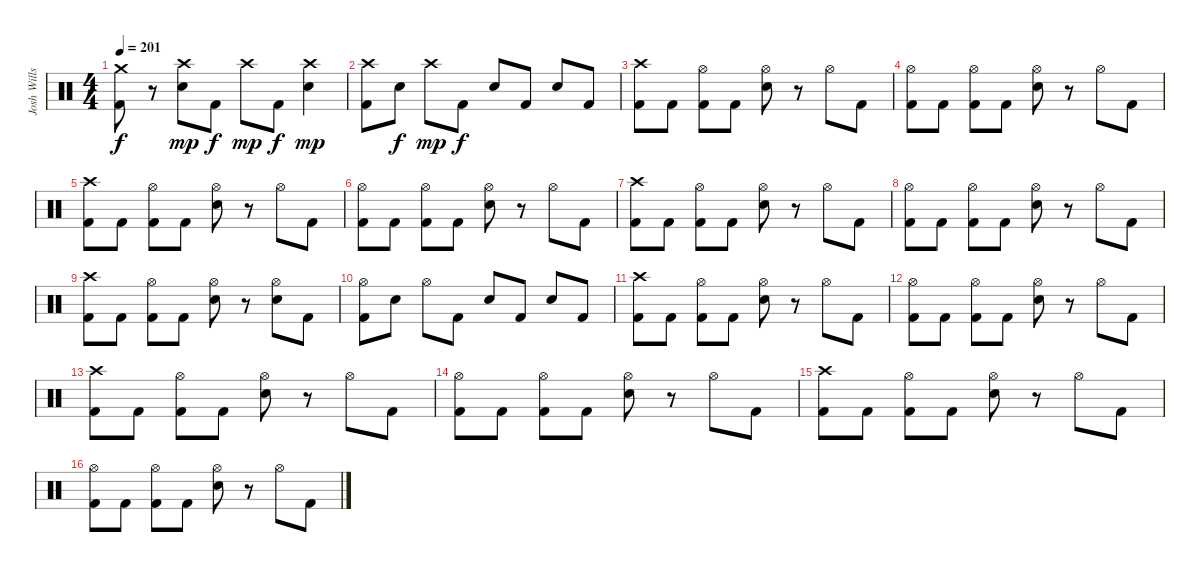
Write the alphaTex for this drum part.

\track ("Josh Wills" "Josh Wills") {instrument percussion}
\staff {score}
\articulation defaults
\ts (4 4)
\tempo 201
\clef neutral
\ks c
("Crash medium (hit)" "Kick (hit) 2").8{dy f} r.8 ("Crash high (hit)" "Snare (hit) 2").8{dy mp} "Kick (hit) 2".8{dy f} "Crash high (hit)".8{dy mp} "Kick (hit) 2".8{dy f} ("Crash high (hit)" "Snare (hit) 2").4{dy mp} |
("Crash high (hit)" "Kick (hit) 2").8 "Snare (hit) 2".8{dy f} "Crash high (hit)".8{dy mp} "Kick (hit) 2".8{dy f} "Snare (hit) 2".8 "Kick (hit) 2".8 "Snare (hit) 2".8 "Kick (hit) 2".8 |
("Crash high (hit)" "Kick (hit) 2").8 "Kick (hit) 2".8 ("Hi-Hat (open)" "Kick (hit) 2").8 "Kick (hit) 2".8 ("Hi-Hat (open)" "Snare (hit) 2").8 r.8 "Hi-Hat (open)".8 "Kick (hit) 2".8 |
("Hi-Hat (open)" "Kick (hit) 2").8 "Kick (hit) 2".8 ("Hi-Hat (open)" "Kick (hit) 2").8 "Kick (hit) 2".8 ("Hi-Hat (open)" "Snare (hit) 2").8 r.8 "Hi-Hat (open)".8 "Kick (hit) 2".8 |
("Crash high (hit)" "Kick (hit) 2").8 "Kick (hit) 2".8 ("Hi-Hat (open)" "Kick (hit) 2").8 "Kick (hit) 2".8 ("Hi-Hat (open)" "Snare (hit) 2").8 r.8 "Hi-Hat (open)".8 "Kick (hit) 2".8 |
("Hi-Hat (open)" "Kick (hit) 2").8 "Kick (hit) 2".8 ("Hi-Hat (open)" "Kick (hit) 2").8 "Kick (hit) 2".8 ("Hi-Hat (open)" "Snare (hit) 2").8 r.8 "Hi-Hat (open)".8 "Kick (hit) 2".8 |
("Crash high (hit)" "Kick (hit) 2").8 "Kick (hit) 2".8 ("Hi-Hat (open)" "Kick (hit) 2").8 "Kick (hit) 2".8 ("Hi-Hat (open)" "Snare (hit) 2").8 r.8 "Hi-Hat (open)".8 "Kick (hit) 2".8 |
("Hi-Hat (open)" "Kick (hit) 2").8 "Kick (hit) 2".8 ("Hi-Hat (open)" "Kick (hit) 2").8 "Kick (hit) 2".8 ("Hi-Hat (open)" "Snare (hit) 2").8 r.8 "Hi-Hat (open)".8 "Kick (hit) 2".8 |
("Crash high (hit)" "Kick (hit) 2").8 "Kick (hit) 2".8 ("Hi-Hat (open)" "Kick (hit) 2").8 "Kick (hit) 2".8 ("Hi-Hat (open)" "Snare (hit) 2").8 r.8 ("Hi-Hat (open)" "Snare (hit) 2").8 "Kick (hit) 2".8 |
("Hi-Hat (open)" "Kick (hit) 2").8 "Snare (hit) 2".8 "Hi-Hat (open)".8 "Kick (hit) 2".8 "Snare (hit) 2".8 "Kick (hit) 2".8 "Snare (hit) 2".8 "Kick (hit) 2".8 |
("Crash high (hit)" "Kick (hit) 2").8 "Kick (hit) 2".8 ("Hi-Hat (open)" "Kick (hit) 2").8 "Kick (hit) 2".8 ("Hi-Hat (open)" "Snare (hit) 2").8 r.8 "Hi-Hat (open)".8 "Kick (hit) 2".8 |
("Hi-Hat (open)" "Kick (hit) 2").8 "Kick (hit) 2".8 ("Hi-Hat (open)" "Kick (hit) 2").8 "Kick (hit) 2".8 ("Hi-Hat (open)" "Snare (hit) 2").8 r.8 "Hi-Hat (open)".8 "Kick (hit) 2".8 |
("Crash high (hit)" "Kick (hit) 2").8 "Kick (hit) 2".8 ("Hi-Hat (open)" "Kick (hit) 2").8 "Kick (hit) 2".8 ("Hi-Hat (open)" "Snare (hit) 2").8 r.8 "Hi-Hat (open)".8 "Kick (hit) 2".8 |
("Hi-Hat (open)" "Kick (hit) 2").8 "Kick (hit) 2".8 ("Hi-Hat (open)" "Kick (hit) 2").8 "Kick (hit) 2".8 ("Hi-Hat (open)" "Snare (hit) 2").8 r.8 "Hi-Hat (open)".8 "Kick (hit) 2".8 |
("Crash high (hit)" "Kick (hit) 2").8 "Kick (hit) 2".8 ("Hi-Hat (open)" "Kick (hit) 2").8 "Kick (hit) 2".8 ("Hi-Hat (open)" "Snare (hit) 2").8 r.8 "Hi-Hat (open)".8 "Kick (hit) 2".8 |
("Hi-Hat (open)" "Kick (hit) 2").8 "Kick (hit) 2".8 ("Hi-Hat (open)" "Kick (hit) 2").8 "Kick (hit) 2".8 ("Hi-Hat (open)" "Snare (hit) 2").8 r.8 "Hi-Hat (open)".8 "Kick (hit) 2".8
